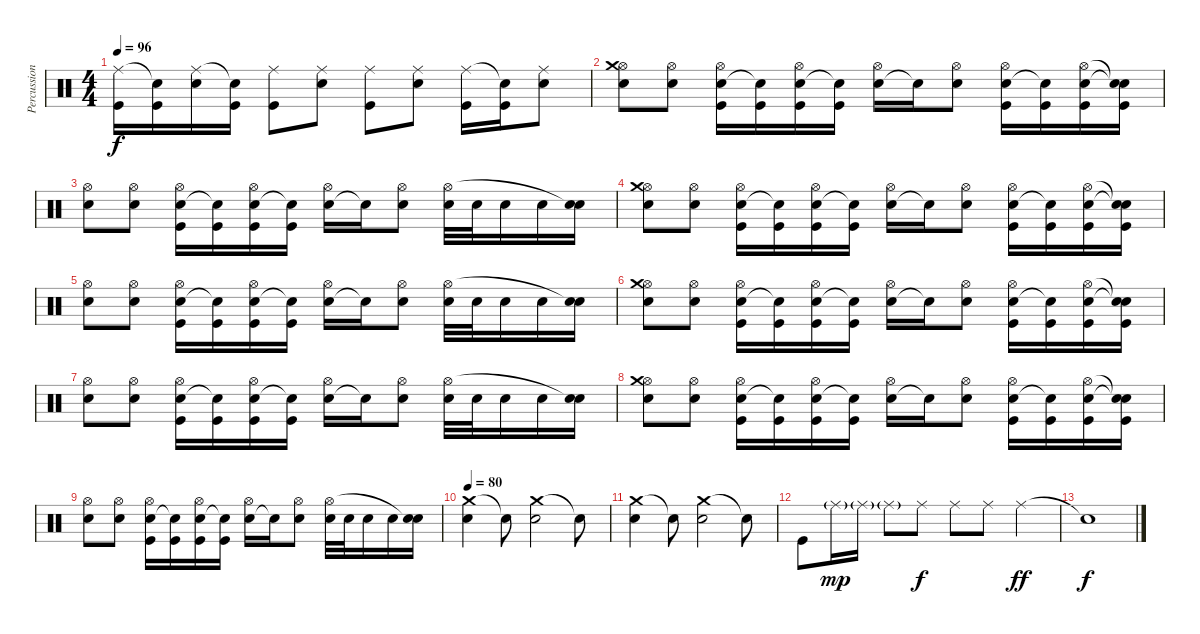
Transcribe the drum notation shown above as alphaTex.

\track ("Percussion" "Percussion") {instrument percussion}
\staff {score}
\articulation defaults
\ts (4 4)
\tempo 96
\clef neutral
\ks c
("Kick (hit)" "Ride (middle)").16{dy f} ("Kick (hit)" "Snare (hit)"{t}).16 ("Electric Snare (hit)" "Ride (middle)").16 ("Kick (hit)" "Snare (hit)"{t}).16 ("Kick (hit)" "Ride (middle)").8 ("Electric Snare (hit)" "Ride (middle)").8 ("Kick (hit)" "Ride (middle)").8 ("Electric Snare (hit)" "Ride (middle)").8 ("Kick (hit)" "Ride (middle)").16 ("Kick (hit)" "Snare (hit)"{t}).16 ("Electric Snare (hit)" "Ride (middle)").8 |
("Electric Snare (hit)" "Hi-Hat (open)" "Crash medium (hit)").8 ("Electric Snare (hit)" "Hi-Hat (open)").8 ("Electric Snare (hit)" "Hi-Hat (open)" "Kick (hit)").16 ("Snare (hit)"{t} "Kick (hit)").16 ("Electric Snare (hit)" "Hi-Hat (open)" "Kick (hit)").16 ("Snare (hit)"{t} "Kick (hit)").16 ("Electric Snare (hit)" "Hi-Hat (open)").16 "Snare (hit)"{t}.16 ("Electric Snare (hit)" "Hi-Hat (open)").8 ("Electric Snare (hit)" "Hi-Hat (open)" "Kick (hit)").16 ("Snare (hit)"{t} "Kick (hit)").16 ("Electric Snare (hit)" "Hi-Hat (open)" "Kick (hit)").16 ("Snare (hit)"{t} "Snare (hit)"{t} "Kick (hit)").16 |
("Electric Snare (hit)" "Hi-Hat (open)").8 ("Electric Snare (hit)" "Hi-Hat (open)").8 ("Electric Snare (hit)" "Hi-Hat (open)" "Kick (hit)").16 ("Snare (hit)"{t} "Kick (hit)").16 ("Electric Snare (hit)" "Hi-Hat (open)" "Kick (hit)").16 ("Snare (hit)"{t} "Kick (hit)").16 ("Electric Snare (hit)" "Hi-Hat (open)").16 "Snare (hit)"{t}.16 ("Electric Snare (hit)" "Hi-Hat (open)").8 ("Electric Snare (hit)" "Hi-Hat (open)").32 "Electric Snare (hit)".32 "Electric Snare (hit)".16 "Electric Snare (hit)".16 ("Electric Snare (hit)" "Snare (hit)"{t}).16 |
("Electric Snare (hit)" "Hi-Hat (open)" "Crash medium (hit)").8 ("Electric Snare (hit)" "Hi-Hat (open)").8 ("Electric Snare (hit)" "Hi-Hat (open)" "Kick (hit)").16 ("Snare (hit)"{t} "Kick (hit)").16 ("Electric Snare (hit)" "Hi-Hat (open)" "Kick (hit)").16 ("Snare (hit)"{t} "Kick (hit)").16 ("Electric Snare (hit)" "Hi-Hat (open)").16 "Snare (hit)"{t}.16 ("Electric Snare (hit)" "Hi-Hat (open)").8 ("Electric Snare (hit)" "Hi-Hat (open)" "Kick (hit)").16 ("Snare (hit)"{t} "Kick (hit)").16 ("Electric Snare (hit)" "Hi-Hat (open)" "Kick (hit)").16 ("Snare (hit)"{t} "Snare (hit)"{t} "Kick (hit)").16 |
("Electric Snare (hit)" "Hi-Hat (open)").8 ("Electric Snare (hit)" "Hi-Hat (open)").8 ("Electric Snare (hit)" "Hi-Hat (open)" "Kick (hit)").16 ("Snare (hit)"{t} "Kick (hit)").16 ("Electric Snare (hit)" "Hi-Hat (open)" "Kick (hit)").16 ("Snare (hit)"{t} "Kick (hit)").16 ("Electric Snare (hit)" "Hi-Hat (open)").16 "Snare (hit)"{t}.16 ("Electric Snare (hit)" "Hi-Hat (open)").8 ("Electric Snare (hit)" "Hi-Hat (open)").32 "Electric Snare (hit)".32 "Electric Snare (hit)".16 "Electric Snare (hit)".16 ("Electric Snare (hit)" "Snare (hit)"{t}).16 |
("Electric Snare (hit)" "Hi-Hat (open)" "Crash medium (hit)").8 ("Electric Snare (hit)" "Hi-Hat (open)").8 ("Electric Snare (hit)" "Hi-Hat (open)" "Kick (hit)").16 ("Snare (hit)"{t} "Kick (hit)").16 ("Electric Snare (hit)" "Hi-Hat (open)" "Kick (hit)").16 ("Snare (hit)"{t} "Kick (hit)").16 ("Electric Snare (hit)" "Hi-Hat (open)").16 "Snare (hit)"{t}.16 ("Electric Snare (hit)" "Hi-Hat (open)").8 ("Electric Snare (hit)" "Hi-Hat (open)" "Kick (hit)").16 ("Snare (hit)"{t} "Kick (hit)").16 ("Electric Snare (hit)" "Hi-Hat (open)" "Kick (hit)").16 ("Snare (hit)"{t} "Snare (hit)"{t} "Kick (hit)").16 |
("Electric Snare (hit)" "Hi-Hat (open)").8 ("Electric Snare (hit)" "Hi-Hat (open)").8 ("Electric Snare (hit)" "Hi-Hat (open)" "Kick (hit)").16 ("Snare (hit)"{t} "Kick (hit)").16 ("Electric Snare (hit)" "Hi-Hat (open)" "Kick (hit)").16 ("Snare (hit)"{t} "Kick (hit)").16 ("Electric Snare (hit)" "Hi-Hat (open)").16 "Snare (hit)"{t}.16 ("Electric Snare (hit)" "Hi-Hat (open)").8 ("Electric Snare (hit)" "Hi-Hat (open)").32 "Electric Snare (hit)".32 "Electric Snare (hit)".16 "Electric Snare (hit)".16 ("Electric Snare (hit)" "Snare (hit)"{t}).16 |
("Electric Snare (hit)" "Hi-Hat (open)" "Crash medium (hit)").8 ("Electric Snare (hit)" "Hi-Hat (open)").8 ("Electric Snare (hit)" "Hi-Hat (open)" "Kick (hit)").16 ("Snare (hit)"{t} "Kick (hit)").16 ("Electric Snare (hit)" "Hi-Hat (open)" "Kick (hit)").16 ("Snare (hit)"{t} "Kick (hit)").16 ("Electric Snare (hit)" "Hi-Hat (open)").16 "Snare (hit)"{t}.16 ("Electric Snare (hit)" "Hi-Hat (open)").8 ("Electric Snare (hit)" "Hi-Hat (open)" "Kick (hit)").16 ("Snare (hit)"{t} "Kick (hit)").16 ("Electric Snare (hit)" "Hi-Hat (open)" "Kick (hit)").16 ("Snare (hit)"{t} "Snare (hit)"{t} "Kick (hit)").16 |
("Electric Snare (hit)" "Hi-Hat (open)").8 ("Electric Snare (hit)" "Hi-Hat (open)").8 ("Electric Snare (hit)" "Hi-Hat (open)" "Kick (hit)").16 ("Snare (hit)"{t} "Kick (hit)").16 ("Electric Snare (hit)" "Hi-Hat (open)" "Kick (hit)").16 ("Snare (hit)"{t} "Kick (hit)").16 ("Electric Snare (hit)" "Hi-Hat (open)").16 "Snare (hit)"{t}.16 ("Electric Snare (hit)" "Hi-Hat (open)").8 ("Electric Snare (hit)" "Hi-Hat (open)").32 "Electric Snare (hit)".32 "Electric Snare (hit)".16 "Electric Snare (hit)".16 ("Electric Snare (hit)" "Snare (hit)"{t}).16 |
\tempo 80
("Crash medium (hit)" "Electric Snare (hit)").4 "Snare (hit)"{t}.8 ("Crash medium (hit)" "Electric Snare (hit)").2 "Snare (hit)"{t}.8 |
("Crash medium (hit)" "Electric Snare (hit)").4 "Snare (hit)"{t}.8 ("Crash medium (hit)" "Electric Snare (hit)").2 "Snare (hit)"{t}.8 |
"Kick (hit)".8 "Ride (middle)"{g}.16{dy mp} "Ride (middle)"{g}.16 "Ride (middle)"{g}.8 "Ride (middle)".8{dy f} "Ride (middle)".8 "Ride (middle)".8 "Ride (middle)".4{dy ff} |
"Snare (hit)"{t}.1{dy f}
